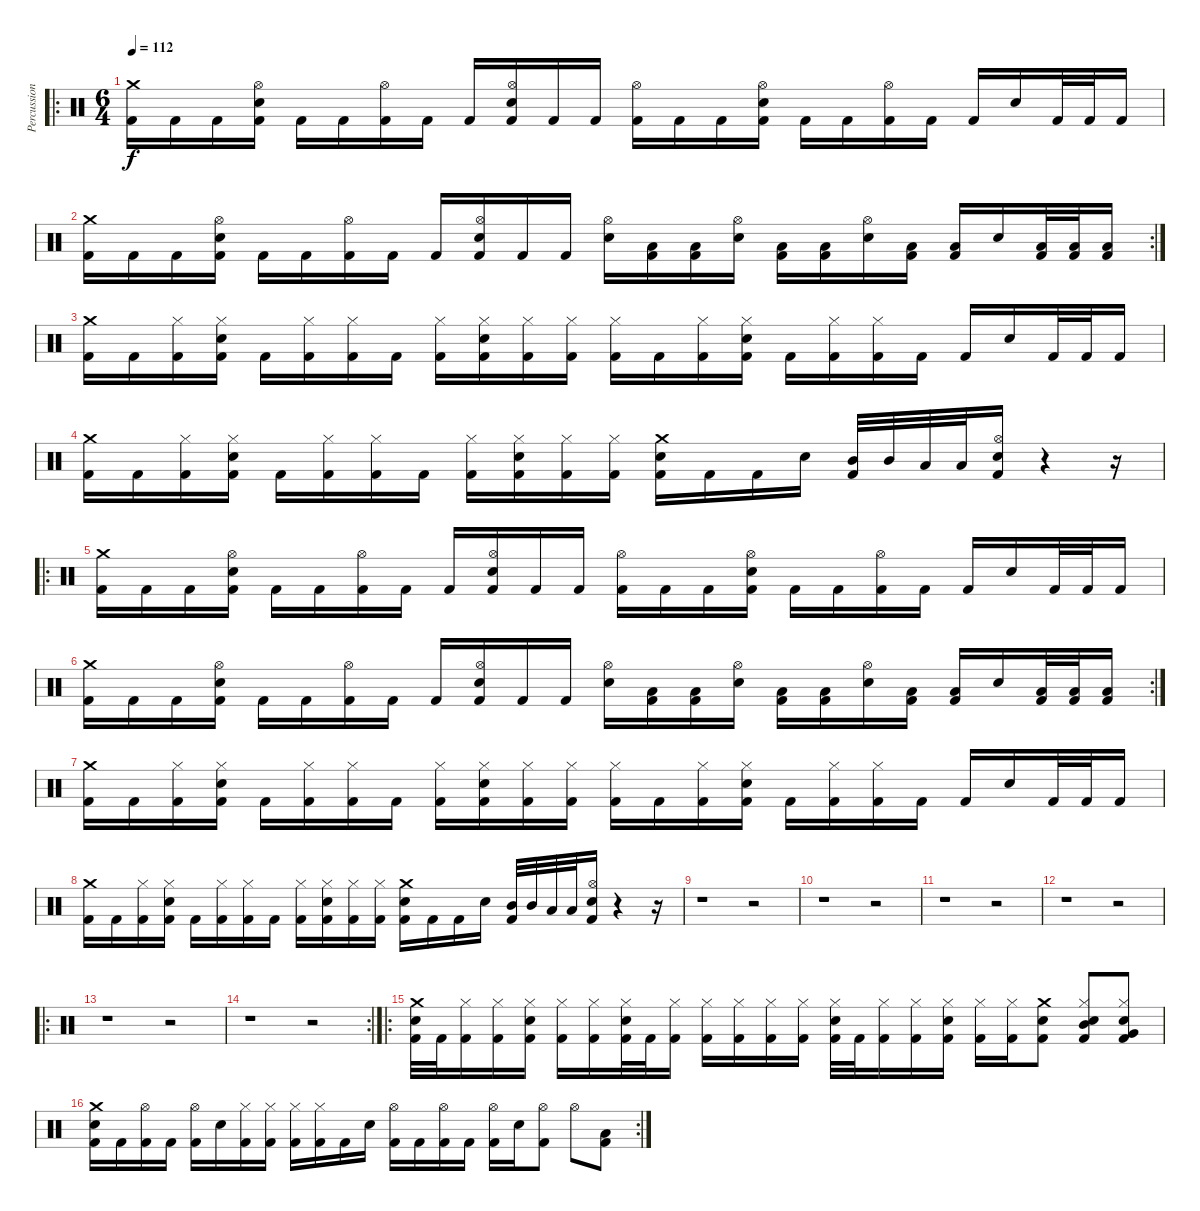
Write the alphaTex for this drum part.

\track ("Percussion" "Percussion") {instrument percussion}
\staff {score}
\articulation defaults
\ro
\ts (6 4)
\tempo 112
\clef neutral
\ks c
("Crash medium (hit)" "Kick (hit) 2").16{dy f} "Kick (hit) 2".16 "Kick (hit) 2".16 ("Hi-Hat (open)" "Snare (hit) 2" "Kick (hit) 2").16 "Kick (hit) 2".16 "Kick (hit) 2".16 ("Hi-Hat (open)" "Kick (hit) 2").16 "Kick (hit) 2".16 "Kick (hit) 2".16 ("Hi-Hat (open)" "Snare (hit) 2" "Kick (hit) 2").16 "Kick (hit) 2".16 "Kick (hit) 2".16 ("Hi-Hat (open)" "Kick (hit) 2").16 "Kick (hit) 2".16 "Kick (hit) 2".16 ("Hi-Hat (open)" "Snare (hit) 2" "Kick (hit) 2").16 "Kick (hit) 2".16 "Kick (hit) 2".16 ("Hi-Hat (open)" "Kick (hit) 2").16 "Kick (hit) 2".16 "Kick (hit) 2".16 "Snare (hit) 2".16 "Kick (hit) 2".32 "Kick (hit) 2".32 "Kick (hit) 2".16 |
\rc 2
("Crash medium (hit)" "Kick (hit) 2").16 "Kick (hit) 2".16 "Kick (hit) 2".16 ("Hi-Hat (open)" "Snare (hit) 2" "Kick (hit) 2").16 "Kick (hit) 2".16 "Kick (hit) 2".16 ("Hi-Hat (open)" "Kick (hit) 2").16 "Kick (hit) 2".16 "Kick (hit) 2".16 ("Hi-Hat (open)" "Snare (hit) 2" "Kick (hit) 2").16 "Kick (hit) 2".16 "Kick (hit) 2".16 ("Hi-Hat (open)" "Snare (hit) 2").16 ("Low Tom (hit)" "Kick (hit) 2").16 ("Low Tom (hit)" "Kick (hit) 2").16 ("Hi-Hat (open)" "Snare (hit) 2").16 ("Low Tom (hit)" "Kick (hit) 2").16 ("Low Tom (hit)" "Kick (hit) 2").16 ("Hi-Hat (open)" "Snare (hit) 2").16 ("Low Tom (hit)" "Kick (hit) 2").16 ("Low Tom (hit)" "Kick (hit) 2").16 "Snare (hit) 2".16 ("Low Tom (hit)" "Kick (hit) 2").32 ("Low Tom (hit)" "Kick (hit) 2").32 ("Low Tom (hit)" "Kick (hit) 2").16 |
("Crash medium (hit)" "Kick (hit) 2").16 "Kick (hit) 2".16 ("Hi-Hat (closed)" "Kick (hit) 2").16 ("Hi-Hat (closed)" "Snare (hit) 2" "Kick (hit) 2").16 "Kick (hit) 2".16 ("Hi-Hat (closed)" "Kick (hit) 2").16 ("Hi-Hat (closed)" "Kick (hit) 2").16 "Kick (hit) 2".16 ("Hi-Hat (closed)" "Kick (hit) 2").16 ("Hi-Hat (closed)" "Snare (hit) 2" "Kick (hit) 2").16 ("Hi-Hat (closed)" "Kick (hit) 2").16 ("Hi-Hat (closed)" "Kick (hit) 2").16 ("Hi-Hat (closed)" "Kick (hit) 2").16 "Kick (hit) 2".16 ("Hi-Hat (closed)" "Kick (hit) 2").16 ("Hi-Hat (closed)" "Snare (hit) 2" "Kick (hit) 2").16 "Kick (hit) 2".16 ("Hi-Hat (closed)" "Kick (hit) 2").16 ("Hi-Hat (closed)" "Kick (hit) 2").16 "Kick (hit) 2".16 "Kick (hit) 2".16 "Snare (hit) 2".16 "Kick (hit) 2".32 "Kick (hit) 2".32 "Kick (hit) 2".16 |
("Crash medium (hit)" "Kick (hit) 2").16 "Kick (hit) 2".16 ("Hi-Hat (closed)" "Kick (hit) 2").16 ("Hi-Hat (closed)" "Snare (hit) 2" "Kick (hit) 2").16 "Kick (hit) 2".16 ("Hi-Hat (closed)" "Kick (hit) 2").16 ("Hi-Hat (closed)" "Kick (hit) 2").16 "Kick (hit) 2".16 ("Hi-Hat (closed)" "Kick (hit) 2").16 ("Hi-Hat (closed)" "Snare (hit) 2" "Kick (hit) 2").16 ("Hi-Hat (closed)" "Kick (hit) 2").16 ("Hi-Hat (closed)" "Kick (hit) 2").16 ("Crash medium (hit)" "Snare (hit) 2" "Kick (hit) 2").16 "Kick (hit) 2".16 "Kick (hit) 2".16 "Snare (hit) 2".16 ("Mid Tom (hit)" "Kick (hit) 2").32 "Mid Tom (hit)".32 "Low Tom (hit)".32 "Low Tom (hit)".32 ("Hi-Hat (open)" "Snare (hit) 2" "Kick (hit) 2").16 r.4 r.16 |
\ro
("Crash medium (hit)" "Kick (hit) 2").16 "Kick (hit) 2".16 "Kick (hit) 2".16 ("Hi-Hat (open)" "Snare (hit) 2" "Kick (hit) 2").16 "Kick (hit) 2".16 "Kick (hit) 2".16 ("Hi-Hat (open)" "Kick (hit) 2").16 "Kick (hit) 2".16 "Kick (hit) 2".16 ("Hi-Hat (open)" "Snare (hit) 2" "Kick (hit) 2").16 "Kick (hit) 2".16 "Kick (hit) 2".16 ("Hi-Hat (open)" "Kick (hit) 2").16 "Kick (hit) 2".16 "Kick (hit) 2".16 ("Hi-Hat (open)" "Snare (hit) 2" "Kick (hit) 2").16 "Kick (hit) 2".16 "Kick (hit) 2".16 ("Hi-Hat (open)" "Kick (hit) 2").16 "Kick (hit) 2".16 "Kick (hit) 2".16 "Snare (hit) 2".16 "Kick (hit) 2".32 "Kick (hit) 2".32 "Kick (hit) 2".16 |
\rc 2
("Crash medium (hit)" "Kick (hit) 2").16 "Kick (hit) 2".16 "Kick (hit) 2".16 ("Hi-Hat (open)" "Snare (hit) 2" "Kick (hit) 2").16 "Kick (hit) 2".16 "Kick (hit) 2".16 ("Hi-Hat (open)" "Kick (hit) 2").16 "Kick (hit) 2".16 "Kick (hit) 2".16 ("Hi-Hat (open)" "Snare (hit) 2" "Kick (hit) 2").16 "Kick (hit) 2".16 "Kick (hit) 2".16 ("Hi-Hat (open)" "Snare (hit) 2").16 ("Low Tom (hit)" "Kick (hit) 2").16 ("Low Tom (hit)" "Kick (hit) 2").16 ("Hi-Hat (open)" "Snare (hit) 2").16 ("Low Tom (hit)" "Kick (hit) 2").16 ("Low Tom (hit)" "Kick (hit) 2").16 ("Hi-Hat (open)" "Snare (hit) 2").16 ("Low Tom (hit)" "Kick (hit) 2").16 ("Low Tom (hit)" "Kick (hit) 2").16 "Snare (hit) 2".16 ("Low Tom (hit)" "Kick (hit) 2").32 ("Low Tom (hit)" "Kick (hit) 2").32 ("Low Tom (hit)" "Kick (hit) 2").16 |
("Crash medium (hit)" "Kick (hit) 2").16 "Kick (hit) 2".16 ("Hi-Hat (closed)" "Kick (hit) 2").16 ("Hi-Hat (closed)" "Snare (hit) 2" "Kick (hit) 2").16 "Kick (hit) 2".16 ("Hi-Hat (closed)" "Kick (hit) 2").16 ("Hi-Hat (closed)" "Kick (hit) 2").16 "Kick (hit) 2".16 ("Hi-Hat (closed)" "Kick (hit) 2").16 ("Hi-Hat (closed)" "Snare (hit) 2" "Kick (hit) 2").16 ("Hi-Hat (closed)" "Kick (hit) 2").16 ("Hi-Hat (closed)" "Kick (hit) 2").16 ("Hi-Hat (closed)" "Kick (hit) 2").16 "Kick (hit) 2".16 ("Hi-Hat (closed)" "Kick (hit) 2").16 ("Hi-Hat (closed)" "Snare (hit) 2" "Kick (hit) 2").16 "Kick (hit) 2".16 ("Hi-Hat (closed)" "Kick (hit) 2").16 ("Hi-Hat (closed)" "Kick (hit) 2").16 "Kick (hit) 2".16 "Kick (hit) 2".16 "Snare (hit) 2".16 "Kick (hit) 2".32 "Kick (hit) 2".32 "Kick (hit) 2".16 |
("Crash medium (hit)" "Kick (hit) 2").16 "Kick (hit) 2".16 ("Hi-Hat (closed)" "Kick (hit) 2").16 ("Hi-Hat (closed)" "Snare (hit) 2" "Kick (hit) 2").16 "Kick (hit) 2".16 ("Hi-Hat (closed)" "Kick (hit) 2").16 ("Hi-Hat (closed)" "Kick (hit) 2").16 "Kick (hit) 2".16 ("Hi-Hat (closed)" "Kick (hit) 2").16 ("Hi-Hat (closed)" "Snare (hit) 2" "Kick (hit) 2").16 ("Hi-Hat (closed)" "Kick (hit) 2").16 ("Hi-Hat (closed)" "Kick (hit) 2").16 ("Crash medium (hit)" "Snare (hit) 2" "Kick (hit) 2").16 "Kick (hit) 2".16 "Kick (hit) 2".16 "Snare (hit) 2".16 ("Mid Tom (hit)" "Kick (hit) 2").32 "Mid Tom (hit)".32 "Low Tom (hit)".32 "Low Tom (hit)".32 ("Hi-Hat (open)" "Snare (hit) 2" "Kick (hit) 2").16 r.4 r.16 |
r.1 r.2 |
r.1 r.2 |
r.1 r.2 |
r.1 r.2 |
\ro
r.1 r.2 |
\rc 2
r.1 r.2 |
\ro
("Crash medium (hit)" "Snare (hit) 2" "Kick (hit) 2").32 "Kick (hit) 2".32 ("Hi-Hat (closed)" "Kick (hit) 2").16 ("Hi-Hat (closed)" "Kick (hit) 2").16 ("Hi-Hat (closed)" "Snare (hit) 2" "Kick (hit) 2").16 ("Hi-Hat (closed)" "Kick (hit) 2").16 ("Hi-Hat (closed)" "Kick (hit) 2").16 ("Hi-Hat (closed)" "Snare (hit) 2" "Kick (hit) 2").32 "Kick (hit) 2".32 ("Hi-Hat (closed)" "Kick (hit) 2").16 ("Hi-Hat (closed)" "Kick (hit) 2").16 ("Hi-Hat (closed)" "Kick (hit) 2").16 ("Hi-Hat (closed)" "Kick (hit) 2").16 ("Hi-Hat (closed)" "Kick (hit) 2").16 ("Hi-Hat (closed)" "Snare (hit) 2" "Kick (hit) 2").32 "Kick (hit) 2".32 ("Hi-Hat (closed)" "Kick (hit) 2").16 ("Hi-Hat (closed)" "Kick (hit) 2").16 ("Hi-Hat (closed)" "Snare (hit) 2" "Kick (hit) 2").16 ("Hi-Hat (closed)" "Kick (hit) 2").16 ("Hi-Hat (closed)" "Kick (hit) 2").16 ("Crash medium (hit)" "Snare (hit) 2" "Kick (hit) 2").8 ("Hi-Hat (closed)" "Snare (hit) 2" "Mid Tom (hit)" "Kick (hit) 2").8 ("Hi-Hat (closed)" "Snare (hit) 2" "Very Low Tom (hit)" "Kick (hit) 2").8 |
\rc 2
("Crash medium (hit)" "Snare (hit) 2" "Kick (hit) 2").16 "Kick (hit) 2".16 ("Hi-Hat (open)" "Kick (hit) 2").16 "Kick (hit) 2".16 ("Hi-Hat (open)" "Kick (hit) 2").16 "Snare (hit) 2".16 ("Hi-Hat (closed)" "Kick (hit) 2").16 ("Hi-Hat (closed)" "Kick (hit) 2").16 ("Hi-Hat (closed)" "Kick (hit) 2").16 ("Hi-Hat (closed)" "Kick (hit) 2").16 "Kick (hit) 2".16 "Snare (hit) 2".16 ("Hi-Hat (open)" "Kick (hit) 2").16 "Kick (hit) 2".16 ("Hi-Hat (open)" "Kick (hit) 2").16 "Kick (hit) 2".16 ("Hi-Hat (open)" "Kick (hit) 2").16 "Snare (hit) 2".16 ("Hi-Hat (open)" "Kick (hit) 2").8 "Hi-Hat (open)".8 ("Low Tom (hit)" "Kick (hit) 2").8
